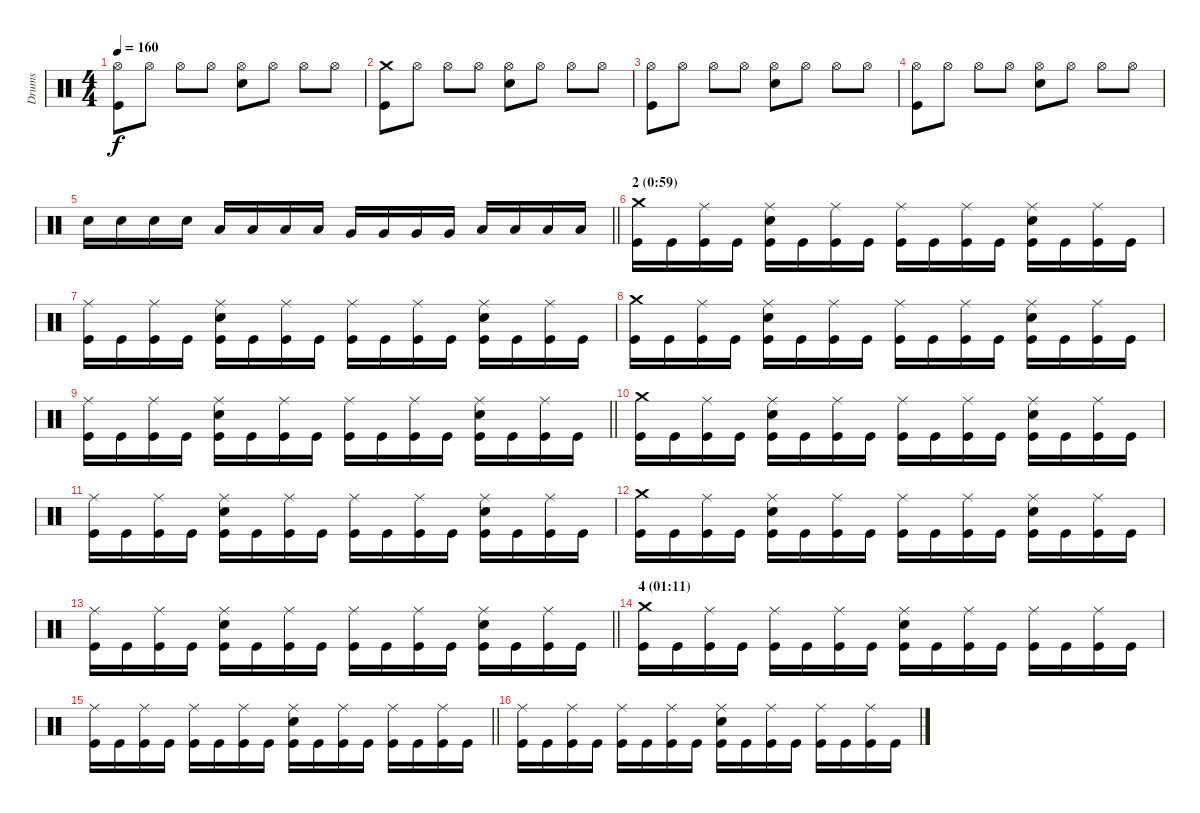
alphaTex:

\track ("Drums" "Drums") {instrument percussion}
\staff {score}
\articulation defaults
\ts (4 4)
\tempo 160
\clef neutral
\ks c
("Hi-Hat (open)" "Kick (hit)").8{dy f} "Hi-Hat (open)".8 "Hi-Hat (open)".8 "Hi-Hat (open)".8 ("Hi-Hat (open)" "Electric Snare (hit)").8 "Hi-Hat (open)".8 "Hi-Hat (open)".8 "Hi-Hat (open)".8 |
("Crash medium (hit)" "Kick (hit)").8 "Hi-Hat (open)".8 "Hi-Hat (open)".8 "Hi-Hat (open)".8 ("Hi-Hat (open)" "Electric Snare (hit)").8 "Hi-Hat (open)".8 "Hi-Hat (open)".8 "Hi-Hat (open)".8 |
("Hi-Hat (open)" "Kick (hit)").8 "Hi-Hat (open)".8 "Hi-Hat (open)".8 "Hi-Hat (open)".8 ("Hi-Hat (open)" "Electric Snare (hit)").8 "Hi-Hat (open)".8 "Hi-Hat (open)".8 "Hi-Hat (open)".8 |
("Hi-Hat (open)" "Kick (hit)").8 "Hi-Hat (open)".8 "Hi-Hat (open)".8 "Hi-Hat (open)".8 ("Hi-Hat (open)" "Electric Snare (hit)").8 "Hi-Hat (open)".8 "Hi-Hat (open)".8 "Hi-Hat (open)".8 |
\barLineRight lightlight "Electric Snare (hit)".16 "Electric Snare (hit)".16 "Electric Snare (hit)".16 "Electric Snare (hit)".16 "Low Tom (hit)".16 "Low Tom (hit)".16 "Low Tom (hit)".16 "Low Tom (hit)".16 "Very Low Tom (hit)".16 "Very Low Tom (hit)".16 "Very Low Tom (hit)".16 "Very Low Tom (hit)".16 "Low Floor Tom (hit)".16 "Low Floor Tom (hit)".16 "Low Floor Tom (hit)".16 "Low Floor Tom (hit)".16
|
\section ("" "2 (0:59)")
("Crash medium (hit)" "Kick (hit)").16 "Kick (hit)".16 ("Ride (middle)" "Kick (hit)").16 "Kick (hit)".16 ("Ride (middle)" "Electric Snare (hit)" "Kick (hit)").16 "Kick (hit)".16 ("Ride (middle)" "Kick (hit)").16 "Kick (hit)".16 ("Ride (middle)" "Kick (hit)").16 "Kick (hit)".16 ("Ride (middle)" "Kick (hit)").16 "Kick (hit)".16 ("Ride (middle)" "Electric Snare (hit)" "Kick (hit)").16 "Kick (hit)".16 ("Ride (middle)" "Kick (hit)").16 "Kick (hit)".16 |
("Ride (middle)" "Kick (hit)").16 "Kick (hit)".16 ("Ride (middle)" "Kick (hit)").16 "Kick (hit)".16 ("Ride (middle)" "Electric Snare (hit)" "Kick (hit)").16 "Kick (hit)".16 ("Ride (middle)" "Kick (hit)").16 "Kick (hit)".16 ("Ride (middle)" "Kick (hit)").16 "Kick (hit)".16 ("Ride (middle)" "Kick (hit)").16 "Kick (hit)".16 ("Ride (middle)" "Electric Snare (hit)" "Kick (hit)").16 "Kick (hit)".16 ("Ride (middle)" "Kick (hit)").16 "Kick (hit)".16 |
("Crash medium (hit)" "Kick (hit)").16 "Kick (hit)".16 ("Ride (middle)" "Kick (hit)").16 "Kick (hit)".16 ("Ride (middle)" "Electric Snare (hit)" "Kick (hit)").16 "Kick (hit)".16 ("Ride (middle)" "Kick (hit)").16 "Kick (hit)".16 ("Ride (middle)" "Kick (hit)").16 "Kick (hit)".16 ("Ride (middle)" "Kick (hit)").16 "Kick (hit)".16 ("Ride (middle)" "Electric Snare (hit)" "Kick (hit)").16 "Kick (hit)".16 ("Ride (middle)" "Kick (hit)").16 "Kick (hit)".16 |
\barLineRight lightlight
("Ride (middle)" "Kick (hit)").16 "Kick (hit)".16 ("Ride (middle)" "Kick (hit)").16 "Kick (hit)".16 ("Ride (middle)" "Electric Snare (hit)" "Kick (hit)").16 "Kick (hit)".16 ("Ride (middle)" "Kick (hit)").16 "Kick (hit)".16 ("Ride (middle)" "Kick (hit)").16 "Kick (hit)".16 ("Ride (middle)" "Kick (hit)").16 "Kick (hit)".16 ("Ride (middle)" "Electric Snare (hit)" "Kick (hit)").16 "Kick (hit)".16 ("Ride (middle)" "Kick (hit)").16 "Kick (hit)".16 |
("Crash medium (hit)" "Kick (hit)").16 "Kick (hit)".16 ("Ride (middle)" "Kick (hit)").16 "Kick (hit)".16 ("Ride (middle)" "Electric Snare (hit)" "Kick (hit)").16 "Kick (hit)".16 ("Ride (middle)" "Kick (hit)").16 "Kick (hit)".16 ("Ride (middle)" "Kick (hit)").16 "Kick (hit)".16 ("Ride (middle)" "Kick (hit)").16 "Kick (hit)".16 ("Ride (middle)" "Electric Snare (hit)" "Kick (hit)").16 "Kick (hit)".16 ("Ride (middle)" "Kick (hit)").16 "Kick (hit)".16 |
("Ride (middle)" "Kick (hit)").16 "Kick (hit)".16 ("Ride (middle)" "Kick (hit)").16 "Kick (hit)".16 ("Ride (middle)" "Electric Snare (hit)" "Kick (hit)").16 "Kick (hit)".16 ("Ride (middle)" "Kick (hit)").16 "Kick (hit)".16 ("Ride (middle)" "Kick (hit)").16 "Kick (hit)".16 ("Ride (middle)" "Kick (hit)").16 "Kick (hit)".16 ("Ride (middle)" "Electric Snare (hit)" "Kick (hit)").16 "Kick (hit)".16 ("Ride (middle)" "Kick (hit)").16 "Kick (hit)".16 |
("Crash medium (hit)" "Kick (hit)").16 "Kick (hit)".16 ("Ride (middle)" "Kick (hit)").16 "Kick (hit)".16 ("Ride (middle)" "Electric Snare (hit)" "Kick (hit)").16 "Kick (hit)".16 ("Ride (middle)" "Kick (hit)").16 "Kick (hit)".16 ("Ride (middle)" "Kick (hit)").16 "Kick (hit)".16 ("Ride (middle)" "Kick (hit)").16 "Kick (hit)".16 ("Ride (middle)" "Electric Snare (hit)" "Kick (hit)").16 "Kick (hit)".16 ("Ride (middle)" "Kick (hit)").16 "Kick (hit)".16 |
\barLineRight lightlight
("Ride (middle)" "Kick (hit)").16 "Kick (hit)".16 ("Ride (middle)" "Kick (hit)").16 "Kick (hit)".16 ("Ride (middle)" "Electric Snare (hit)" "Kick (hit)").16 "Kick (hit)".16 ("Ride (middle)" "Kick (hit)").16 "Kick (hit)".16 ("Ride (middle)" "Kick (hit)").16 "Kick (hit)".16 ("Ride (middle)" "Kick (hit)").16 "Kick (hit)".16 ("Ride (middle)" "Electric Snare (hit)" "Kick (hit)").16 "Kick (hit)".16 ("Ride (middle)" "Kick (hit)").16 "Kick (hit)".16 |
\section ("" "4 (01:11)")
("Crash medium (hit)" "Kick (hit)").16 "Kick (hit)".16 ("Ride (middle)" "Kick (hit)").16 "Kick (hit)".16 ("Ride (middle)" "Kick (hit)").16 "Kick (hit)".16 ("Ride (middle)" "Kick (hit)").16 "Kick (hit)".16 ("Ride (middle)" "Electric Snare (hit)" "Kick (hit)").16 "Kick (hit)".16 ("Ride (middle)" "Kick (hit)").16 "Kick (hit)".16 ("Ride (middle)" "Kick (hit)").16 "Kick (hit)".16 ("Ride (middle)" "Kick (hit)").16 "Kick (hit)".16 |
\barLineRight lightlight
("Ride (middle)" "Kick (hit)").16 "Kick (hit)".16 ("Ride (middle)" "Kick (hit)").16 "Kick (hit)".16 ("Ride (middle)" "Kick (hit)").16 "Kick (hit)".16 ("Ride (middle)" "Kick (hit)").16 "Kick (hit)".16 ("Ride (middle)" "Electric Snare (hit)" "Kick (hit)").16 "Kick (hit)".16 ("Ride (middle)" "Kick (hit)").16 "Kick (hit)".16 ("Ride (middle)" "Kick (hit)").16 "Kick (hit)".16 ("Ride (middle)" "Kick (hit)").16 "Kick (hit)".16 |
("Ride (middle)" "Kick (hit)").16 "Kick (hit)".16 ("Ride (middle)" "Kick (hit)").16 "Kick (hit)".16 ("Ride (middle)" "Kick (hit)").16 "Kick (hit)".16 ("Ride (middle)" "Kick (hit)").16 "Kick (hit)".16 ("Ride (middle)" "Electric Snare (hit)" "Kick (hit)").16 "Kick (hit)".16 ("Ride (middle)" "Kick (hit)").16 "Kick (hit)".16 ("Ride (middle)" "Kick (hit)").16 "Kick (hit)".16 ("Ride (middle)" "Kick (hit)").16 "Kick (hit)".16
